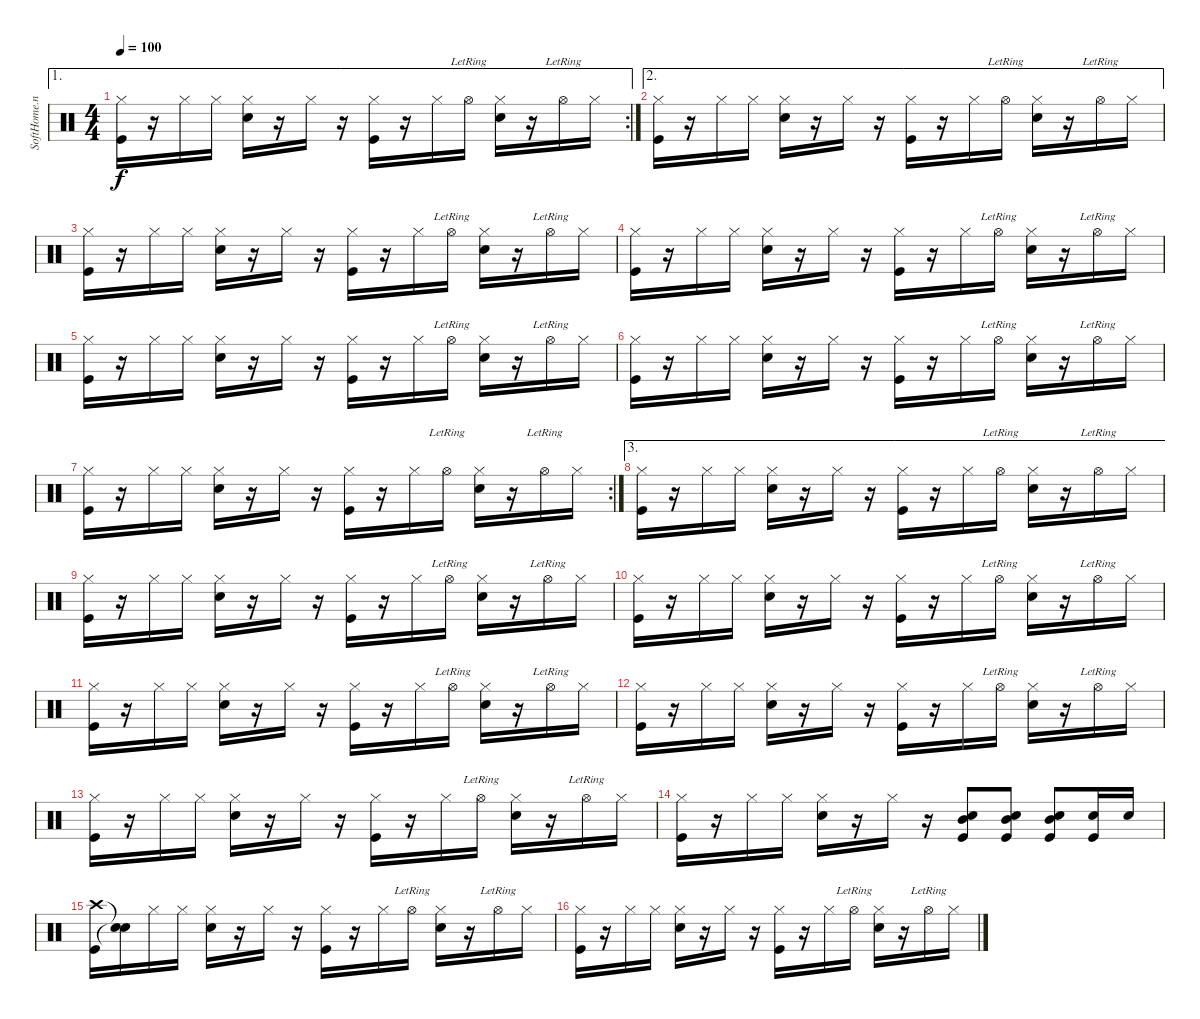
\track ("SoftHome.net" "SoftHome.n") {instrument percussion}
\staff {score}
\articulation defaults
\ae 1
\rc 2
\ts (4 4)
\tempo 100
\clef neutral
\ks c
("Hi-Hat (closed)" "Kick (hit)").16{dy f} r.16 "Hi-Hat (closed)".16 "Hi-Hat (closed)".16 ("Hi-Hat (closed)" "Snare (hit) 2").16 r.16 "Hi-Hat (closed)".16 r.16 ("Hi-Hat (closed)" "Kick (hit)").16 r.16 "Hi-Hat (closed)".16 "Hi-Hat (open)"{lr}.16 ("Hi-Hat (closed)" "Snare (hit) 2").16 r.16 "Hi-Hat (open)"{lr}.16 "Hi-Hat (closed)".16 |
\ae 2
("Hi-Hat (closed)" "Kick (hit)").16 r.16 "Hi-Hat (closed)".16 "Hi-Hat (closed)".16 ("Hi-Hat (closed)" "Snare (hit) 2").16 r.16 "Hi-Hat (closed)".16 r.16 ("Hi-Hat (closed)" "Kick (hit)").16 r.16 "Hi-Hat (closed)".16 "Hi-Hat (open)"{lr}.16 ("Hi-Hat (closed)" "Snare (hit) 2").16 r.16 "Hi-Hat (open)"{lr}.16 "Hi-Hat (closed)".16 |
("Hi-Hat (closed)" "Kick (hit)").16 r.16 "Hi-Hat (closed)".16 "Hi-Hat (closed)".16 ("Hi-Hat (closed)" "Snare (hit) 2").16 r.16 "Hi-Hat (closed)".16 r.16 ("Hi-Hat (closed)" "Kick (hit)").16 r.16 "Hi-Hat (closed)".16 "Hi-Hat (open)"{lr}.16 ("Hi-Hat (closed)" "Snare (hit) 2").16 r.16 "Hi-Hat (open)"{lr}.16 "Hi-Hat (closed)".16 |
("Hi-Hat (closed)" "Kick (hit)").16 r.16 "Hi-Hat (closed)".16 "Hi-Hat (closed)".16 ("Hi-Hat (closed)" "Snare (hit) 2").16 r.16 "Hi-Hat (closed)".16 r.16 ("Hi-Hat (closed)" "Kick (hit)").16 r.16 "Hi-Hat (closed)".16 "Hi-Hat (open)"{lr}.16 ("Hi-Hat (closed)" "Snare (hit) 2").16 r.16 "Hi-Hat (open)"{lr}.16 "Hi-Hat (closed)".16 |
("Hi-Hat (closed)" "Kick (hit)").16 r.16 "Hi-Hat (closed)".16 "Hi-Hat (closed)".16 ("Hi-Hat (closed)" "Snare (hit) 2").16 r.16 "Hi-Hat (closed)".16 r.16 ("Hi-Hat (closed)" "Kick (hit)").16 r.16 "Hi-Hat (closed)".16 "Hi-Hat (open)"{lr}.16 ("Hi-Hat (closed)" "Snare (hit) 2").16 r.16 "Hi-Hat (open)"{lr}.16 "Hi-Hat (closed)".16 |
("Hi-Hat (closed)" "Kick (hit)").16 r.16 "Hi-Hat (closed)".16 "Hi-Hat (closed)".16 ("Hi-Hat (closed)" "Snare (hit) 2").16 r.16 "Hi-Hat (closed)".16 r.16 ("Hi-Hat (closed)" "Kick (hit)").16 r.16 "Hi-Hat (closed)".16 "Hi-Hat (open)"{lr}.16 ("Hi-Hat (closed)" "Snare (hit) 2").16 r.16 "Hi-Hat (open)"{lr}.16 "Hi-Hat (closed)".16 |
\rc 2
("Hi-Hat (closed)" "Kick (hit)").16 r.16 "Hi-Hat (closed)".16 "Hi-Hat (closed)".16 ("Hi-Hat (closed)" "Snare (hit) 2").16 r.16 "Hi-Hat (closed)".16 r.16 ("Hi-Hat (closed)" "Kick (hit)").16 r.16 "Hi-Hat (closed)".16 "Hi-Hat (open)"{lr}.16 ("Hi-Hat (closed)" "Snare (hit) 2").16 r.16 "Hi-Hat (open)"{lr}.16 "Hi-Hat (closed)".16 |
\ae 3
("Hi-Hat (closed)" "Kick (hit)").16 r.16 "Hi-Hat (closed)".16 "Hi-Hat (closed)".16 ("Hi-Hat (closed)" "Snare (hit) 2").16 r.16 "Hi-Hat (closed)".16 r.16 ("Hi-Hat (closed)" "Kick (hit)").16 r.16 "Hi-Hat (closed)".16 "Hi-Hat (open)"{lr}.16 ("Hi-Hat (closed)" "Snare (hit) 2").16 r.16 "Hi-Hat (open)"{lr}.16 "Hi-Hat (closed)".16 |
("Hi-Hat (closed)" "Kick (hit)").16 r.16 "Hi-Hat (closed)".16 "Hi-Hat (closed)".16 ("Hi-Hat (closed)" "Snare (hit) 2").16 r.16 "Hi-Hat (closed)".16 r.16 ("Hi-Hat (closed)" "Kick (hit)").16 r.16 "Hi-Hat (closed)".16 "Hi-Hat (open)"{lr}.16 ("Hi-Hat (closed)" "Snare (hit) 2").16 r.16 "Hi-Hat (open)"{lr}.16 "Hi-Hat (closed)".16 |
("Hi-Hat (closed)" "Kick (hit)").16 r.16 "Hi-Hat (closed)".16 "Hi-Hat (closed)".16 ("Hi-Hat (closed)" "Snare (hit) 2").16 r.16 "Hi-Hat (closed)".16 r.16 ("Hi-Hat (closed)" "Kick (hit)").16 r.16 "Hi-Hat (closed)".16 "Hi-Hat (open)"{lr}.16 ("Hi-Hat (closed)" "Snare (hit) 2").16 r.16 "Hi-Hat (open)"{lr}.16 "Hi-Hat (closed)".16 |
("Hi-Hat (closed)" "Kick (hit)").16 r.16 "Hi-Hat (closed)".16 "Hi-Hat (closed)".16 ("Hi-Hat (closed)" "Snare (hit) 2").16 r.16 "Hi-Hat (closed)".16 r.16 ("Hi-Hat (closed)" "Kick (hit)").16 r.16 "Hi-Hat (closed)".16 "Hi-Hat (open)"{lr}.16 ("Hi-Hat (closed)" "Snare (hit) 2").16 r.16 "Hi-Hat (open)"{lr}.16 "Hi-Hat (closed)".16 |
("Hi-Hat (closed)" "Kick (hit)").16 r.16 "Hi-Hat (closed)".16 "Hi-Hat (closed)".16 ("Hi-Hat (closed)" "Snare (hit) 2").16 r.16 "Hi-Hat (closed)".16 r.16 ("Hi-Hat (closed)" "Kick (hit)").16 r.16 "Hi-Hat (closed)".16 "Hi-Hat (open)"{lr}.16 ("Hi-Hat (closed)" "Snare (hit) 2").16 r.16 "Hi-Hat (open)"{lr}.16 "Hi-Hat (closed)".16 |
("Hi-Hat (closed)" "Kick (hit)").16 r.16 "Hi-Hat (closed)".16 "Hi-Hat (closed)".16 ("Hi-Hat (closed)" "Snare (hit) 2").16 r.16 "Hi-Hat (closed)".16 r.16 ("Hi-Hat (closed)" "Kick (hit)").16 r.16 "Hi-Hat (closed)".16 "Hi-Hat (open)"{lr}.16 ("Hi-Hat (closed)" "Snare (hit) 2").16 r.16 "Hi-Hat (open)"{lr}.16 "Hi-Hat (closed)".16 |
("Hi-Hat (closed)" "Kick (hit)").16 r.16 "Hi-Hat (closed)".16 "Hi-Hat (closed)".16 ("Hi-Hat (closed)" "Snare (hit) 2").16 r.16 "Hi-Hat (closed)".16 r.16 ("Mid Tom (hit)" "Snare (hit) 2" "Kick (hit)").8 ("Mid Tom (hit)" "Snare (hit) 2" "Kick (hit)").8 ("Mid Tom (hit)" "Snare (hit) 2" "Kick (hit)").8 ("Snare (hit) 2" "Kick (hit)").16 "Snare (hit) 2".16 |
("Crash high (hit)" "Kick (hit)").16 ("Snare (hit)"{t} "Snare (hit)"{t}).16 "Hi-Hat (closed)".16 "Hi-Hat (closed)".16 ("Hi-Hat (closed)" "Snare (hit) 2").16 r.16 "Hi-Hat (closed)".16 r.16 ("Hi-Hat (closed)" "Kick (hit)").16 r.16 "Hi-Hat (closed)".16 "Hi-Hat (open)"{lr}.16 ("Hi-Hat (closed)" "Snare (hit) 2").16 r.16 "Hi-Hat (open)"{lr}.16 "Hi-Hat (closed)".16 |
("Hi-Hat (closed)" "Kick (hit)").16 r.16 "Hi-Hat (closed)".16 "Hi-Hat (closed)".16 ("Hi-Hat (closed)" "Snare (hit) 2").16 r.16 "Hi-Hat (closed)".16 r.16 ("Hi-Hat (closed)" "Kick (hit)").16 r.16 "Hi-Hat (closed)".16 "Hi-Hat (open)"{lr}.16 ("Hi-Hat (closed)" "Snare (hit) 2").16 r.16 "Hi-Hat (open)"{lr}.16 "Hi-Hat (closed)".16
